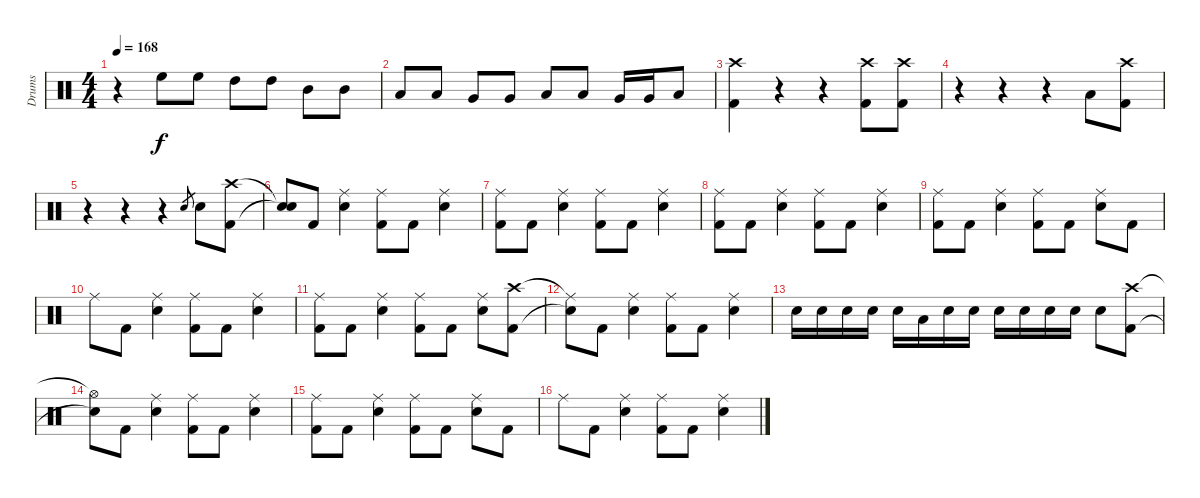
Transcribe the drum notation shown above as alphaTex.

\track ("Drums" "Drums") {instrument percussion}
\staff {score}
\articulation defaults
\ts (4 4)
\tempo 168
\clef neutral
\ks c
r.4{dy f} "High Floor Tom (hit)".8 "High Floor Tom (hit)".8 "High Tom (hit)".8 "High Tom (hit)".8 "Mid Tom (hit)".8 "Mid Tom (hit)".8 |
"Low Tom (hit)".8 "Low Tom (hit)".8 "Very Low Tom (hit)".8 "Very Low Tom (hit)".8 "Low Floor Tom (hit)".8 "Low Floor Tom (hit)".8 "Very Low Tom (hit)".16 "Very Low Tom (hit)".16 "Low Floor Tom (hit)".8 |
("Crash high (hit)" "Kick (hit) 2").4 r.4 r.4 ("Crash high (hit)" "Kick (hit) 2").8 ("Crash high (hit)" "Kick (hit) 2").8 |
r.4 r.4 r.4 "Low Tom (hit)".8 ("Crash high (hit)" "Kick (hit) 2").8 |
r.4 r.4 r.4 "Electric Snare (hit)".8{gr} "Electric Snare (hit)".8 ("Crash high (hit)" "Kick (hit) 2").8 |
("Snare (hit)"{t} "Snare (hit)"{t}).8 "Kick (hit) 2".8 ("Ride (middle)" "Electric Snare (hit)").4 ("Ride (middle)" "Kick (hit) 2").8 "Kick (hit) 2".8 ("Ride (middle)" "Electric Snare (hit)").4 |
("Ride (middle)" "Kick (hit) 2").8 "Kick (hit) 2".8 ("Ride (middle)" "Electric Snare (hit)").4 ("Ride (middle)" "Kick (hit) 2").8 "Kick (hit) 2".8 ("Ride (middle)" "Electric Snare (hit)").4 |
("Ride (middle)" "Kick (hit) 2").8 "Kick (hit) 2".8 ("Ride (middle)" "Electric Snare (hit)").4 ("Ride (middle)" "Kick (hit) 2").8 "Kick (hit) 2".8 ("Ride (middle)" "Electric Snare (hit)").4 |
("Ride (middle)" "Kick (hit) 2").8 "Kick (hit) 2".8 ("Ride (middle)" "Electric Snare (hit)").4 ("Ride (middle)" "Kick (hit) 2").8 "Kick (hit) 2".8 ("Ride (middle)" "Electric Snare (hit)").8 "Kick (hit) 2".8 |
"Ride (middle)".8 "Kick (hit) 2".8 ("Ride (middle)" "Electric Snare (hit)").4 ("Ride (middle)" "Kick (hit) 2").8 "Kick (hit) 2".8 ("Ride (middle)" "Electric Snare (hit)").4 |
("Ride (middle)" "Kick (hit) 2").8 "Kick (hit) 2".8 ("Ride (middle)" "Electric Snare (hit)").4 ("Ride (middle)" "Kick (hit) 2").8 "Kick (hit) 2".8 ("Ride (middle)" "Electric Snare (hit)").8 ("Crash high (hit)" "Kick (hit) 2").8 |
("Ride (middle)"{t} "Snare (hit)"{t}).8 "Kick (hit) 2".8 ("Ride (middle)" "Electric Snare (hit)").4 ("Ride (middle)" "Kick (hit) 2").8 "Kick (hit) 2".8 ("Ride (middle)" "Electric Snare (hit)").4 |
"Electric Snare (hit)".16 "Electric Snare (hit)".16 "Electric Snare (hit)".16 "Electric Snare (hit)".16 "Electric Snare (hit)".16 "Low Tom (hit)".16 "Electric Snare (hit)".16 "Electric Snare (hit)".16 "Electric Snare (hit)".16 "Electric Snare (hit)".16 "Electric Snare (hit)".16 "Electric Snare (hit)".16 "Electric Snare (hit)".8 ("Crash high (hit)" "Kick (hit) 2").8 |
("Hi-Hat (open)"{t} "Snare (hit)"{t}).8 "Kick (hit) 2".8 ("Ride (middle)" "Electric Snare (hit)").4 ("Ride (middle)" "Kick (hit) 2").8 "Kick (hit) 2".8 ("Ride (middle)" "Electric Snare (hit)").4 |
("Ride (middle)" "Kick (hit) 2").8 "Kick (hit) 2".8 ("Ride (middle)" "Electric Snare (hit)").4 ("Ride (middle)" "Kick (hit) 2").8 "Kick (hit) 2".8 ("Ride (middle)" "Electric Snare (hit)").8 "Kick (hit) 2".8 |
"Ride (middle)".8 "Kick (hit) 2".8 ("Ride (middle)" "Electric Snare (hit)").4 ("Ride (middle)" "Kick (hit) 2").8 "Kick (hit) 2".8 ("Ride (middle)" "Electric Snare (hit)").4
